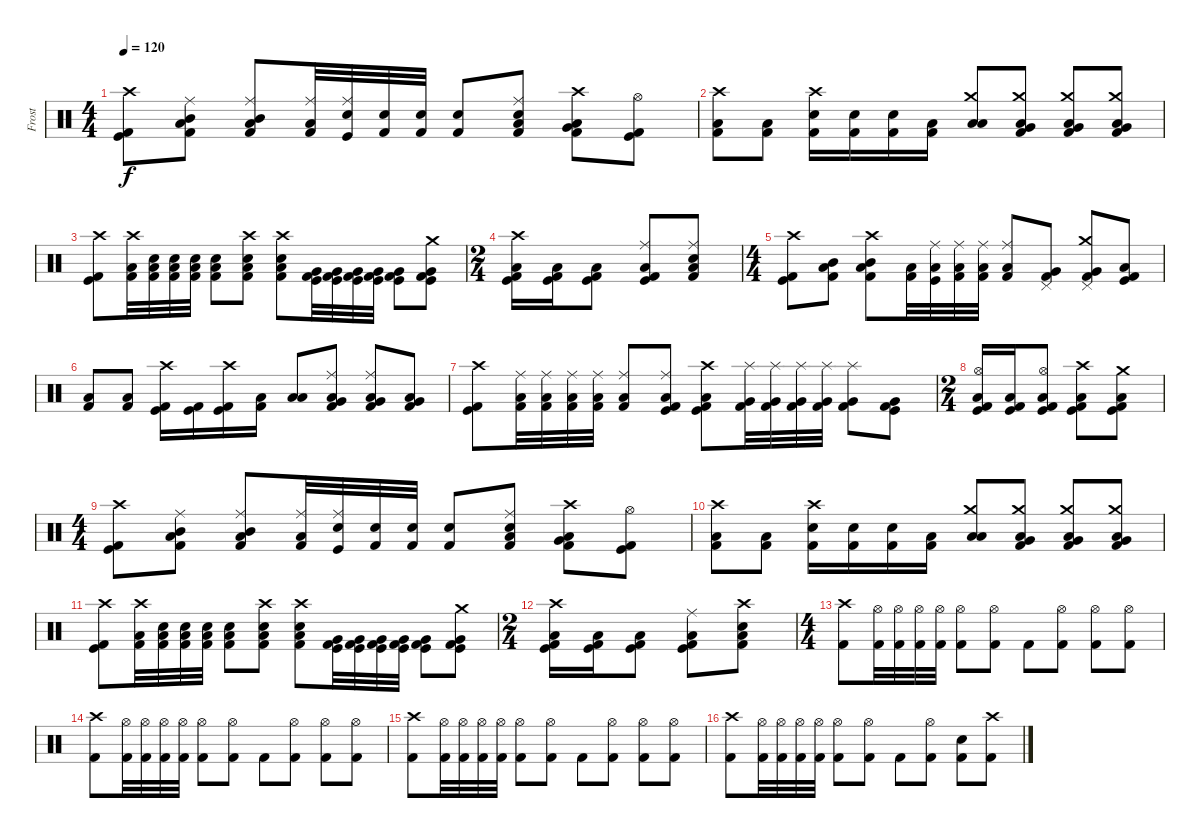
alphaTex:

\track ("Frost" "Frost") {instrument percussion}
\staff {score}
\articulation defaults
\ts (4 4)
\tempo 120
\clef neutral
\ks c
("Crash high (hit)" "Kick (hit)" "Kick (hit) 2").8{dy f} ("Ride (middle)" "Mid Tom (hit)" "Low Tom (hit)" "Kick (hit) 2").8 ("Ride (middle)" "Mid Tom (hit)" "Low Tom (hit)" "Kick (hit) 2").8 ("Ride (middle)" "Low Tom (hit)" "Kick (hit) 2").32 ("Ride (middle)" "Electric Snare (hit)" "Kick (hit)").32 ("Electric Snare (hit)" "Kick (hit) 2").32 ("Electric Snare (hit)" "Kick (hit) 2").32 ("Electric Snare (hit)" "Kick (hit) 2").8 ("Ride (middle)" "Low Tom (hit)" "Electric Snare (hit)" "Kick (hit) 2").8 ("Crash high (hit)" "Low Tom (hit)" "Very Low Tom (hit)" "Kick (hit) 2").8 ("Hi-Hat (open)" "Kick (hit)" "Kick (hit) 2").8 |
("Crash high (hit)" "Low Tom (hit)" "Kick (hit) 2").8 ("Low Tom (hit)" "Kick (hit) 2").8 ("Crash high (hit)" "Electric Snare (hit)" "Kick (hit) 2").16 ("Electric Snare (hit)" "Kick (hit) 2").16 ("Electric Snare (hit)" "Kick (hit) 2").16 ("Low Tom (hit)" "Kick (hit) 2").16 ("Crash medium (hit)" "Low Floor Tom (hit)" "Low Tom (hit)").8 ("Crash medium (hit)" "Very Low Tom (hit)" "Low Floor Tom (hit)" "Kick (hit) 2").8 ("Crash medium (hit)" "Very Low Tom (hit)" "Low Floor Tom (hit)" "Kick (hit) 2").8 ("Crash medium (hit)" "Very Low Tom (hit)" "Low Floor Tom (hit)" "Kick (hit) 2").8 |
("Crash high (hit)" "Kick (hit)" "Kick (hit) 2").8 ("Crash high (hit)" "Low Tom (hit)" "Kick (hit) 2").32 ("Electric Snare (hit)" "Low Tom (hit)" "Kick (hit) 2").32 ("Electric Snare (hit)" "Low Tom (hit)" "Kick (hit) 2").32 ("Electric Snare (hit)" "Low Tom (hit)" "Kick (hit) 2").32 ("Electric Snare (hit)" "Low Tom (hit)" "Kick (hit) 2").8 ("Crash high (hit)" "Electric Snare (hit)" "Low Tom (hit)" "Kick (hit) 2").8 ("Crash high (hit)" "Electric Snare (hit)" "Low Tom (hit)" "Kick (hit) 2").8 ("Kick (hit)" "Very Low Tom (hit)" "Kick (hit) 2").32 ("Kick (hit)" "Very Low Tom (hit)" "Kick (hit) 2").32 ("Kick (hit)" "Very Low Tom (hit)" "Kick (hit) 2").32 ("Kick (hit)" "Very Low Tom (hit)" "Kick (hit) 2").32 ("Kick (hit)" "Very Low Tom (hit)" "Kick (hit) 2").8 ("Crash medium (hit)" "Kick (hit)" "Very Low Tom (hit)" "Kick (hit) 2").8 |
\ts (2 4)
("Crash high (hit)" "Kick (hit)" "Low Floor Tom (hit)" "Kick (hit) 2").16 ("Kick (hit)" "Low Floor Tom (hit)" "Kick (hit) 2").16 ("Kick (hit)" "Low Floor Tom (hit)" "Kick (hit) 2").8 ("Ride (middle)" "Kick (hit)" "Low Floor Tom (hit)" "Kick (hit) 2").8 ("Ride (middle)" "Electric Snare (hit)" "Low Floor Tom (hit)" "Kick (hit) 2").8 |
\ts (4 4)
("Crash high (hit)" "Kick (hit)" "Kick (hit) 2").8 ("Mid Tom (hit)" "Low Tom (hit)" "Kick (hit) 2").8 ("Crash high (hit)" "Mid Tom (hit)" "Low Tom (hit)" "Kick (hit) 2").8 ("Low Tom (hit)" "Kick (hit) 2").32 ("Ride (middle)" "Low Tom (hit)" "Kick (hit)").32 ("Ride (middle)" "Low Tom (hit)" "Kick (hit) 2").32 ("Ride (middle)" "Low Tom (hit)" "Kick (hit) 2").32 ("Ride (middle)" "Low Tom (hit)" "Kick (hit) 2").8 ("Pedal Hi-Hat (hit)" "Very Low Tom (hit)" "Kick (hit) 2").8 ("Crash medium (hit)" "Pedal Hi-Hat (hit)" "Very Low Tom (hit)" "Kick (hit) 2").8 ("Low Tom (hit)" "Kick (hit)" "Kick (hit) 2").8 |
("Low Tom (hit)" "Kick (hit) 2").8 ("Low Tom (hit)" "Kick (hit) 2").8 ("Crash high (hit)" "Kick (hit)" "Kick (hit) 2").16 ("Kick (hit)" "Kick (hit) 2").16 ("Crash high (hit)" "Kick (hit)" "Kick (hit) 2").16 ("Low Tom (hit)" "Kick (hit) 2").16 ("Low Floor Tom (hit)" "Low Tom (hit)").8 ("Ride (middle)" "Very Low Tom (hit)" "Low Floor Tom (hit)" "Kick (hit) 2").8 ("Ride (middle)" "Very Low Tom (hit)" "Low Floor Tom (hit)" "Kick (hit) 2").8 ("Very Low Tom (hit)" "Low Floor Tom (hit)" "Kick (hit) 2").8 |
("Crash high (hit)" "Kick (hit)" "Kick (hit) 2").8 ("Ride (middle)" "Low Tom (hit)" "Kick (hit) 2").32 ("Ride (middle)" "Low Tom (hit)" "Kick (hit) 2").32 ("Ride (middle)" "Low Tom (hit)" "Kick (hit) 2").32 ("Ride (middle)" "Low Tom (hit)" "Kick (hit) 2").32 ("Ride (middle)" "Low Tom (hit)" "Kick (hit) 2").8 ("Ride (middle)" "Kick (hit)" "Low Tom (hit)" "Kick (hit) 2").8 ("Crash high (hit)" "Kick (hit)" "Low Tom (hit)" "Kick (hit) 2").8 ("Splash (hit)" "Very Low Tom (hit)" "Kick (hit) 2").32 ("Splash (hit)" "Very Low Tom (hit)" "Kick (hit) 2").32 ("Splash (hit)" "Very Low Tom (hit)" "Kick (hit) 2").32 ("Splash (hit)" "Very Low Tom (hit)" "Kick (hit) 2").32 ("Splash (hit)" "Very Low Tom (hit)" "Kick (hit) 2").8 ("Kick (hit)" "Very Low Tom (hit)" "Kick (hit) 2").8 |
\ts (2 4)
("Hi-Hat (open)" "Kick (hit)" "Low Floor Tom (hit)" "Kick (hit) 2").16 ("Kick (hit)" "Low Floor Tom (hit)" "Kick (hit) 2").16 ("Hi-Hat (open)" "Kick (hit)" "Low Floor Tom (hit)" "Kick (hit) 2").8 ("Crash high (hit)" "Kick (hit)" "Low Floor Tom (hit)" "Kick (hit) 2").8 ("Crash medium (hit)" "Kick (hit)" "Low Floor Tom (hit)" "Kick (hit) 2").8 |
\ts (4 4)
("Crash high (hit)" "Kick (hit)" "Kick (hit) 2").8 ("Ride (middle)" "Mid Tom (hit)" "Low Tom (hit)" "Kick (hit) 2").8 ("Ride (middle)" "Mid Tom (hit)" "Low Tom (hit)" "Kick (hit) 2").8 ("Ride (middle)" "Low Tom (hit)" "Kick (hit) 2").32 ("Ride (middle)" "Electric Snare (hit)" "Kick (hit)").32 ("Electric Snare (hit)" "Kick (hit) 2").32 ("Electric Snare (hit)" "Kick (hit) 2").32 ("Electric Snare (hit)" "Kick (hit) 2").8 ("Ride (middle)" "Low Tom (hit)" "Electric Snare (hit)" "Kick (hit) 2").8 ("Crash high (hit)" "Low Tom (hit)" "Very Low Tom (hit)" "Kick (hit) 2").8 ("Hi-Hat (open)" "Kick (hit)" "Kick (hit) 2").8 |
("Crash high (hit)" "Low Tom (hit)" "Kick (hit) 2").8 ("Low Tom (hit)" "Kick (hit) 2").8 ("Crash high (hit)" "Electric Snare (hit)" "Kick (hit) 2").16 ("Electric Snare (hit)" "Kick (hit) 2").16 ("Electric Snare (hit)" "Kick (hit) 2").16 ("Low Tom (hit)" "Kick (hit) 2").16 ("Crash medium (hit)" "Low Floor Tom (hit)" "Low Tom (hit)").8 ("Crash medium (hit)" "Very Low Tom (hit)" "Low Floor Tom (hit)" "Kick (hit) 2").8 ("Crash medium (hit)" "Very Low Tom (hit)" "Low Floor Tom (hit)" "Kick (hit) 2").8 ("Crash medium (hit)" "Very Low Tom (hit)" "Low Floor Tom (hit)" "Kick (hit) 2").8 |
("Crash high (hit)" "Kick (hit)" "Kick (hit) 2").8 ("Crash high (hit)" "Low Tom (hit)" "Kick (hit) 2").32 ("Electric Snare (hit)" "Low Tom (hit)" "Kick (hit) 2").32 ("Electric Snare (hit)" "Low Tom (hit)" "Kick (hit) 2").32 ("Electric Snare (hit)" "Low Tom (hit)" "Kick (hit) 2").32 ("Electric Snare (hit)" "Low Tom (hit)" "Kick (hit) 2").8 ("Crash high (hit)" "Electric Snare (hit)" "Low Tom (hit)" "Kick (hit) 2").8 ("Crash high (hit)" "Electric Snare (hit)" "Low Tom (hit)" "Kick (hit) 2").8 ("Kick (hit)" "Very Low Tom (hit)" "Kick (hit) 2").32 ("Kick (hit)" "Very Low Tom (hit)" "Kick (hit) 2").32 ("Kick (hit)" "Very Low Tom (hit)" "Kick (hit) 2").32 ("Kick (hit)" "Very Low Tom (hit)" "Kick (hit) 2").32 ("Kick (hit)" "Very Low Tom (hit)" "Kick (hit) 2").8 ("Crash medium (hit)" "Kick (hit)" "Very Low Tom (hit)" "Kick (hit) 2").8 |
\ts (2 4)
("Crash high (hit)" "Kick (hit)" "Low Floor Tom (hit)" "Kick (hit) 2").16 ("Kick (hit)" "Low Floor Tom (hit)" "Kick (hit) 2").16 ("Kick (hit)" "Low Floor Tom (hit)" "Kick (hit) 2").8 ("Ride (middle)" "Kick (hit)" "Low Floor Tom (hit)" "Kick (hit) 2").8 ("Crash high (hit)" "Electric Snare (hit)" "Low Floor Tom (hit)" "Kick (hit) 2").8 |
\ts (4 4)
("Crash high (hit)" "Kick (hit) 2").8 ("Hi-Hat (open)" "Kick (hit) 2").32 ("Hi-Hat (open)" "Kick (hit) 2").32 ("Hi-Hat (open)" "Kick (hit) 2").32 ("Hi-Hat (open)" "Kick (hit) 2").32 ("Hi-Hat (open)" "Kick (hit) 2").8 ("Hi-Hat (open)" "Kick (hit) 2").8 "Kick (hit) 2".8 ("Hi-Hat (open)" "Kick (hit) 2").8 ("Hi-Hat (open)" "Kick (hit) 2").8 ("Hi-Hat (open)" "Kick (hit) 2").8 |
("Crash high (hit)" "Kick (hit) 2").8 ("Hi-Hat (open)" "Kick (hit) 2").32 ("Hi-Hat (open)" "Kick (hit) 2").32 ("Hi-Hat (open)" "Kick (hit) 2").32 ("Hi-Hat (open)" "Kick (hit) 2").32 ("Hi-Hat (open)" "Kick (hit) 2").8 ("Hi-Hat (open)" "Kick (hit) 2").8 "Kick (hit) 2".8 ("Hi-Hat (open)" "Kick (hit) 2").8 ("Hi-Hat (open)" "Kick (hit) 2").8 ("Hi-Hat (open)" "Kick (hit) 2").8 |
("Crash high (hit)" "Kick (hit) 2").8 ("Hi-Hat (open)" "Kick (hit) 2").32 ("Hi-Hat (open)" "Kick (hit) 2").32 ("Hi-Hat (open)" "Kick (hit) 2").32 ("Hi-Hat (open)" "Kick (hit) 2").32 ("Hi-Hat (open)" "Kick (hit) 2").8 ("Hi-Hat (open)" "Kick (hit) 2").8 "Kick (hit) 2".8 ("Hi-Hat (open)" "Kick (hit) 2").8 ("Hi-Hat (open)" "Kick (hit) 2").8 ("Hi-Hat (open)" "Kick (hit) 2").8 |
("Crash high (hit)" "Kick (hit) 2").8 ("Hi-Hat (open)" "Kick (hit) 2").32 ("Hi-Hat (open)" "Kick (hit) 2").32 ("Hi-Hat (open)" "Kick (hit) 2").32 ("Hi-Hat (open)" "Kick (hit) 2").32 ("Hi-Hat (open)" "Kick (hit) 2").8 ("Hi-Hat (open)" "Kick (hit) 2").8 "Kick (hit) 2".8 ("Hi-Hat (open)" "Kick (hit) 2").8 ("Snare (hit) 2" "Kick (hit) 2").8 ("Crash high (hit)" "Kick (hit) 2").8
